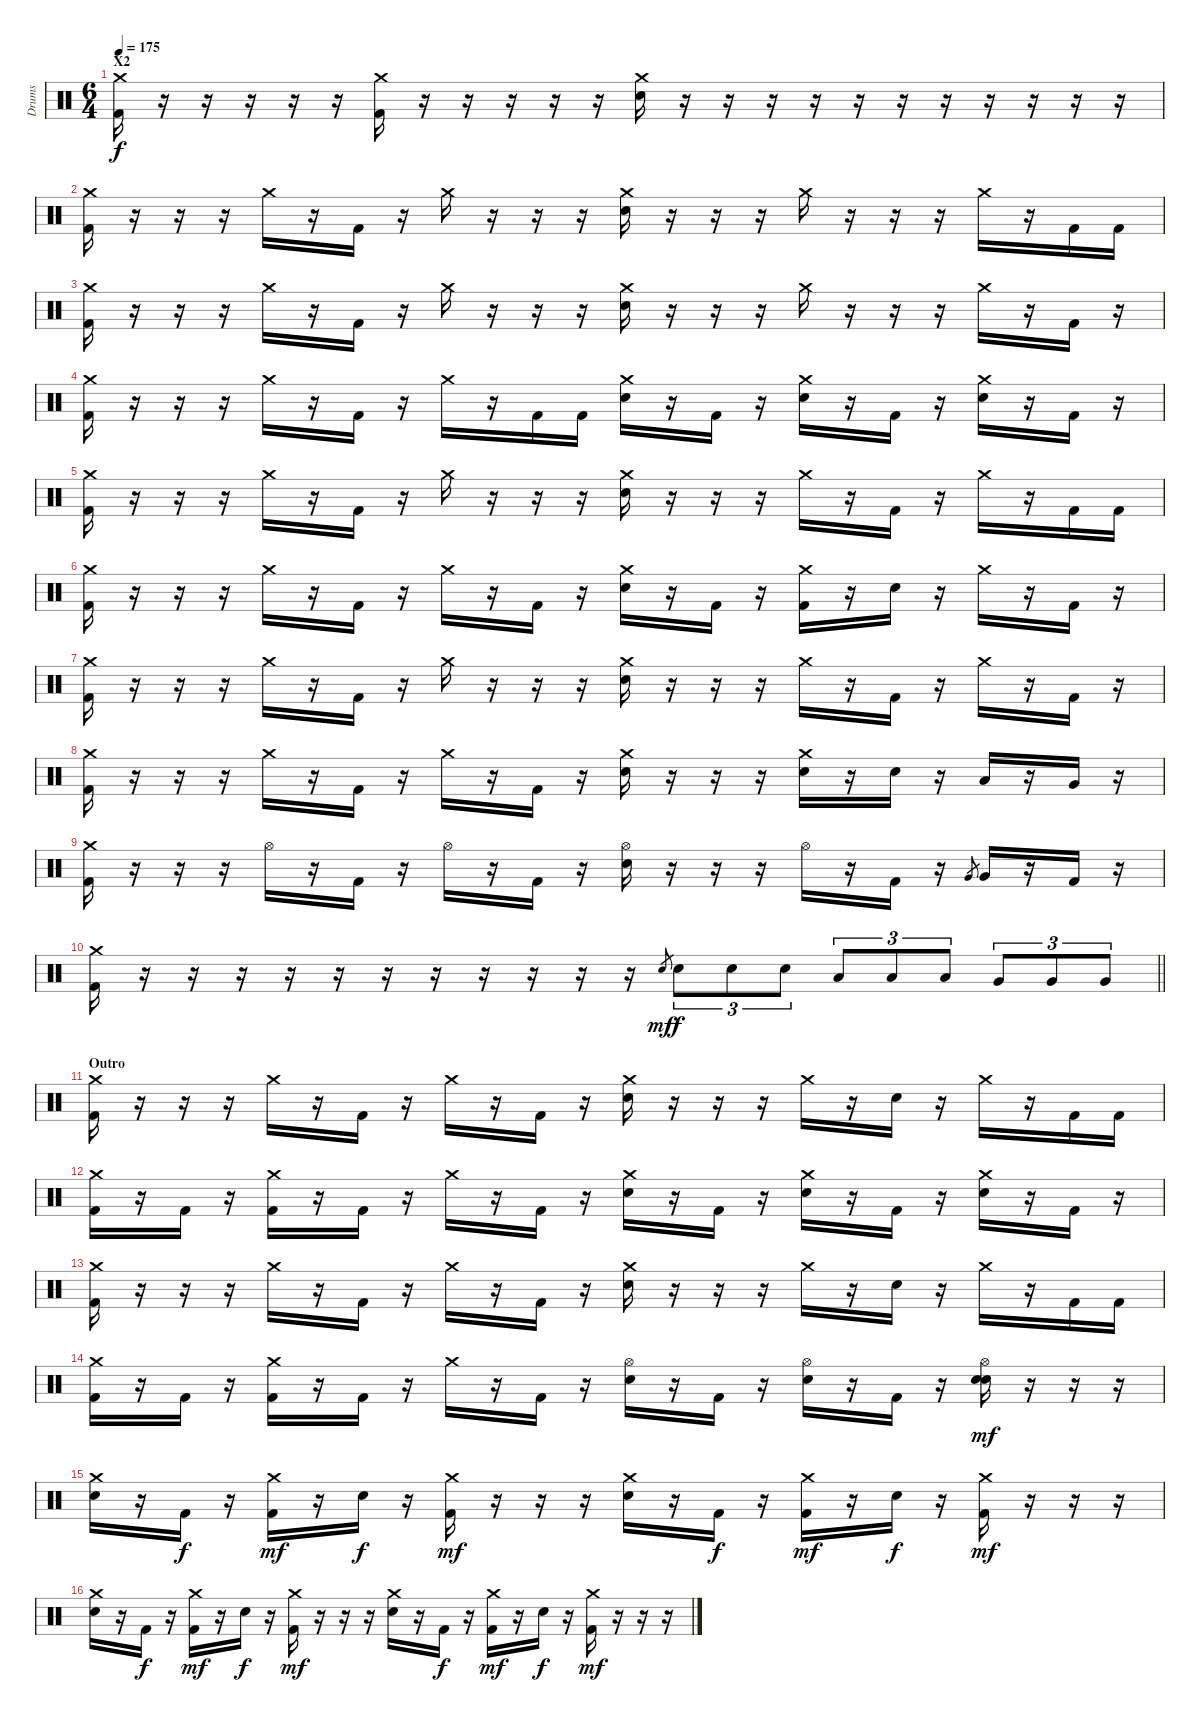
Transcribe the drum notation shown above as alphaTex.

\track ("Drums" "Drums") {instrument percussion}
\staff {score}
\articulation defaults
\ts (6 4)
\section ("" "X2")
\tempo 175
\clef neutral
\ks c
("Crash medium (hit)" "Kick (hit) 2").16{dy f} r.16 r.16 r.16 r.16 r.16 ("Crash medium (hit)" "Kick (hit) 2").16 r.16 r.16 r.16 r.16 r.16 ("Crash medium (hit)" "Electric Snare (hit)").16 r.16 r.16 r.16 r.16 r.16 r.16 r.16 r.16 r.16 r.16 r.16 |
("Crash medium (hit)" "Kick (hit) 2").16 r.16 r.16 r.16 "Crash medium (hit)".16 r.16 "Kick (hit) 2".16 r.16 "Crash medium (hit)".16 r.16 r.16 r.16 ("Crash medium (hit)" "Electric Snare (hit)").16 r.16 r.16 r.16 "Crash medium (hit)".16 r.16 r.16 r.16 "Crash medium (hit)".16 r.16 "Kick (hit) 2".16 "Kick (hit) 2".16 |
("Crash medium (hit)" "Kick (hit) 2").16 r.16 r.16 r.16 "Crash medium (hit)".16 r.16 "Kick (hit) 2".16 r.16 "Crash medium (hit)".16 r.16 r.16 r.16 ("Crash medium (hit)" "Electric Snare (hit)").16 r.16 r.16 r.16 "Crash medium (hit)".16 r.16 r.16 r.16 "Crash medium (hit)".16 r.16 "Kick (hit) 2".16 r.16 |
("Crash medium (hit)" "Kick (hit) 2").16 r.16 r.16 r.16 "Crash medium (hit)".16 r.16 "Kick (hit) 2".16 r.16 "Crash medium (hit)".16 r.16 "Kick (hit) 2".16 "Kick (hit) 2".16 ("Crash medium (hit)" "Electric Snare (hit)").16 r.16 "Kick (hit) 2".16 r.16 ("Crash medium (hit)" "Electric Snare (hit)").16 r.16 "Kick (hit) 2".16 r.16 ("Crash medium (hit)" "Electric Snare (hit)").16 r.16 "Kick (hit) 2".16 r.16 |
("Crash medium (hit)" "Kick (hit) 2").16 r.16 r.16 r.16 "Crash medium (hit)".16 r.16 "Kick (hit) 2".16 r.16 "Crash medium (hit)".16 r.16 r.16 r.16 ("Crash medium (hit)" "Electric Snare (hit)").16 r.16 r.16 r.16 "Crash medium (hit)".16 r.16 "Kick (hit) 2".16 r.16 "Crash medium (hit)".16 r.16 "Kick (hit) 2".16 "Kick (hit) 2".16 |
("Crash medium (hit)" "Kick (hit) 2").16 r.16 r.16 r.16 "Crash medium (hit)".16 r.16 "Kick (hit) 2".16 r.16 "Crash medium (hit)".16 r.16 "Kick (hit) 2".16 r.16 ("Crash medium (hit)" "Electric Snare (hit)").16 r.16 "Kick (hit) 2".16 r.16 ("Crash medium (hit)" "Kick (hit) 2").16 r.16 "Electric Snare (hit)".16 r.16 "Crash medium (hit)".16 r.16 "Kick (hit) 2".16 r.16 |
("Crash medium (hit)" "Kick (hit) 2").16 r.16 r.16 r.16 "Crash medium (hit)".16 r.16 "Kick (hit) 2".16 r.16 "Crash medium (hit)".16 r.16 r.16 r.16 ("Crash medium (hit)" "Electric Snare (hit)").16 r.16 r.16 r.16 "Crash medium (hit)".16 r.16 "Kick (hit) 2".16 r.16 "Crash medium (hit)".16 r.16 "Kick (hit) 2".16 r.16 |
("Crash medium (hit)" "Kick (hit) 2").16 r.16 r.16 r.16 "Crash medium (hit)".16 r.16 "Kick (hit) 2".16 r.16 "Crash medium (hit)".16 r.16 "Kick (hit) 2".16 r.16 ("Crash medium (hit)" "Electric Snare (hit)").16 r.16 r.16 r.16 ("Crash medium (hit)" "Electric Snare (hit)").16 r.16 "Electric Snare (hit)".16 r.16 "Low Tom (hit)".16 r.16 "Very Low Tom (hit)".16 r.16 |
("Crash medium (hit)" "Kick (hit) 2").16 r.16 r.16 r.16 "Hi-Hat (open)".16 r.16 "Kick (hit) 2".16 r.16 "Hi-Hat (open)".16 r.16 "Kick (hit) 2".16 r.16 ("Hi-Hat (open)" "Electric Snare (hit)").16 r.16 r.16 r.16 "Hi-Hat (open)".16 r.16 "Kick (hit) 2".16 r.16 "Very Low Tom (hit)".8{gr} "Very Low Tom (hit)".16 r.16 "Kick (hit) 2".16 r.16 |
\barLineRight lightlight
("Crash medium (hit)" "Kick (hit) 2").16 r.16 r.16 r.16 r.16 r.16 r.16 r.16 r.16 r.16 r.16 r.16 "Electric Snare (hit)".8{gr dy mf} "Electric Snare (hit)".8{tu (3 2) dy f} "Electric Snare (hit)".8{tu (3 2)} "Electric Snare (hit)".8{tu (3 2)} "Low Tom (hit)".8{tu (3 2)} "Low Tom (hit)".8{tu (3 2)} "Low Tom (hit)".8{tu (3 2)} "Very Low Tom (hit)".8{tu (3 2)} "Very Low Tom (hit)".8{tu (3 2)} "Very Low Tom (hit)".8{tu (3 2)} |
\section ("" "Outro")
("Crash medium (hit)" "Kick (hit) 2").16 r.16 r.16 r.16 "Crash medium (hit)".16 r.16 "Kick (hit) 2".16 r.16 "Crash medium (hit)".16 r.16 "Kick (hit) 2".16 r.16 ("Crash medium (hit)" "Electric Snare (hit)").16 r.16 r.16 r.16 "Crash medium (hit)".16 r.16 "Electric Snare (hit)".16 r.16 "Crash medium (hit)".16 r.16 "Kick (hit) 2".16 "Kick (hit) 2".16 |
("Crash medium (hit)" "Kick (hit) 2").16 r.16 "Kick (hit) 2".16 r.16 ("Crash medium (hit)" "Kick (hit) 2").16 r.16 "Kick (hit) 2".16 r.16 "Crash medium (hit)".16 r.16 "Kick (hit) 2".16 r.16 ("Crash medium (hit)" "Electric Snare (hit)").16 r.16 "Kick (hit) 2".16 r.16 ("Crash medium (hit)" "Electric Snare (hit)").16 r.16 "Kick (hit) 2".16 r.16 ("Crash medium (hit)" "Electric Snare (hit)").16 r.16 "Kick (hit) 2".16 r.16 |
("Crash medium (hit)" "Kick (hit) 2").16 r.16 r.16 r.16 "Crash medium (hit)".16 r.16 "Kick (hit) 2".16 r.16 "Crash medium (hit)".16 r.16 "Kick (hit) 2".16 r.16 ("Crash medium (hit)" "Electric Snare (hit)").16 r.16 r.16 r.16 "Crash medium (hit)".16 r.16 "Electric Snare (hit)".16 r.16 "Crash medium (hit)".16 r.16 "Kick (hit) 2".16 "Kick (hit) 2".16 |
("Crash medium (hit)" "Kick (hit) 2").16 r.16 "Kick (hit) 2".16 r.16 ("Crash medium (hit)" "Kick (hit) 2").16 r.16 "Kick (hit) 2".16 r.16 "Crash medium (hit)".16 r.16 "Kick (hit) 2".16 r.16 ("Hi-Hat (open)" "Electric Snare (hit)").16 r.16 "Kick (hit) 2".16 r.16 ("Hi-Hat (open)" "Electric Snare (hit)").16 r.16 "Kick (hit) 2".16 r.16 ("Hi-Hat (open)" "Electric Snare (hit)" "Electric Snare (hit)").16{dy mf} r.16 r.16 r.16 |
("Crash medium (hit)" "Electric Snare (hit)").16 r.16 "Kick (hit) 2".16{dy f} r.16 ("Crash medium (hit)" "Kick (hit) 2").16{dy mf} r.16 "Electric Snare (hit)".16{dy f} r.16 ("Crash medium (hit)" "Kick (hit) 2").16{dy mf} r.16 r.16 r.16 ("Crash medium (hit)" "Electric Snare (hit)").16 r.16 "Kick (hit) 2".16{dy f} r.16 ("Crash medium (hit)" "Kick (hit) 2").16{dy mf} r.16 "Electric Snare (hit)".16{dy f} r.16 ("Crash medium (hit)" "Kick (hit) 2").16{dy mf} r.16 r.16 r.16 |
("Crash medium (hit)" "Electric Snare (hit)").16 r.16 "Kick (hit) 2".16{dy f} r.16 ("Crash medium (hit)" "Kick (hit) 2").16{dy mf} r.16 "Electric Snare (hit)".16{dy f} r.16 ("Crash medium (hit)" "Kick (hit) 2").16{dy mf} r.16 r.16 r.16 ("Crash medium (hit)" "Electric Snare (hit)").16 r.16 "Kick (hit) 2".16{dy f} r.16 ("Crash medium (hit)" "Kick (hit) 2").16{dy mf} r.16 "Electric Snare (hit)".16{dy f} r.16 ("Crash medium (hit)" "Kick (hit) 2").16{dy mf} r.16 r.16 r.16
